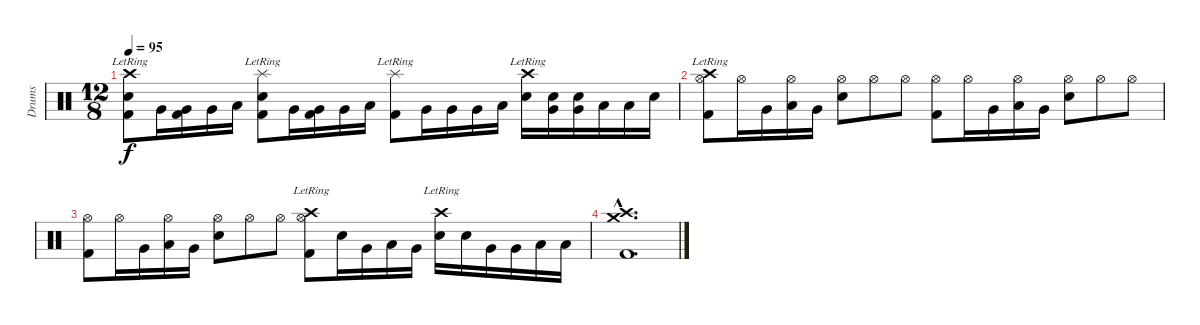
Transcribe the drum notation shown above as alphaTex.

\track ("Drums" "Drums") {instrument percussion}
\staff {score}
\articulation defaults
\ts (12 8)
\tempo 95
\clef neutral
\ks c
("Kick (hit) 2" "Snare (hit) 2" "Crash high (hit)"{lr}).8{dy f} "Very Low Tom (hit)".16 ("Kick (hit) 2" "Very Low Tom (hit)").16 "Very Low Tom (hit)".16 "Low Tom (hit)".16 ("Kick (hit) 2" "Snare (hit) 2" "Splash (hit)"{lr}).8 "Very Low Tom (hit)".16 ("Kick (hit) 2" "Very Low Tom (hit)").16 "Very Low Tom (hit)".16 "Low Tom (hit)".16 ("Kick (hit) 2" "Splash (hit)"{lr}).8 "Very Low Tom (hit)".16 "Very Low Tom (hit)".16 "Very Low Tom (hit)".16 "Low Tom (hit)".16 ("Snare (hit) 2" "Crash high (hit)"{lr}).16 ("Snare (hit) 2" "Very Low Tom (hit)").16 ("Snare (hit) 2" "Very Low Tom (hit)").16 "Low Tom (hit)".16 "Low Tom (hit)".16 "Snare (hit) 2".16 |
("Kick (hit) 2" "Hi-Hat (open)" "Crash high (hit)"{lr}).8 "Hi-Hat (open)".16 "Very Low Tom (hit)".16 ("Hi-Hat (open)" "Low Tom (hit)").16 "Very Low Tom (hit)".16 ("Snare (hit) 2" "Hi-Hat (open)").8 "Hi-Hat (open)".8 "Hi-Hat (open)".8 ("Kick (hit) 2" "Hi-Hat (open)").8 "Hi-Hat (open)".16 "Very Low Tom (hit)".16 ("Hi-Hat (open)" "Low Tom (hit)").16 "Very Low Tom (hit)".16 ("Snare (hit) 2" "Hi-Hat (open)").8 "Hi-Hat (open)".8 "Hi-Hat (open)".8 |
("Kick (hit) 2" "Hi-Hat (open)").8 "Hi-Hat (open)".16 "Very Low Tom (hit)".16 ("Hi-Hat (open)" "Low Tom (hit)").16 "Very Low Tom (hit)".16 ("Snare (hit) 2" "Hi-Hat (open)").8 "Hi-Hat (open)".8 "Hi-Hat (open)".8 ("Kick (hit) 2" "Hi-Hat (open)" "Crash high (hit)"{lr}).8 "Snare (hit) 2".16 "Very Low Tom (hit)".16 "Low Tom (hit)".16 "Very Low Tom (hit)".16 ("Snare (hit) 2" "Crash high (hit)"{lr}).16 "Snare (hit) 2".16 "Very Low Tom (hit)".16 "Very Low Tom (hit)".16 "Low Tom (hit)".16 "Low Tom (hit)".16 |
("Kick (hit) 2"{hac} "Crash medium (hit)"{hac} "Crash high (hit)"{hac}).1{d}
